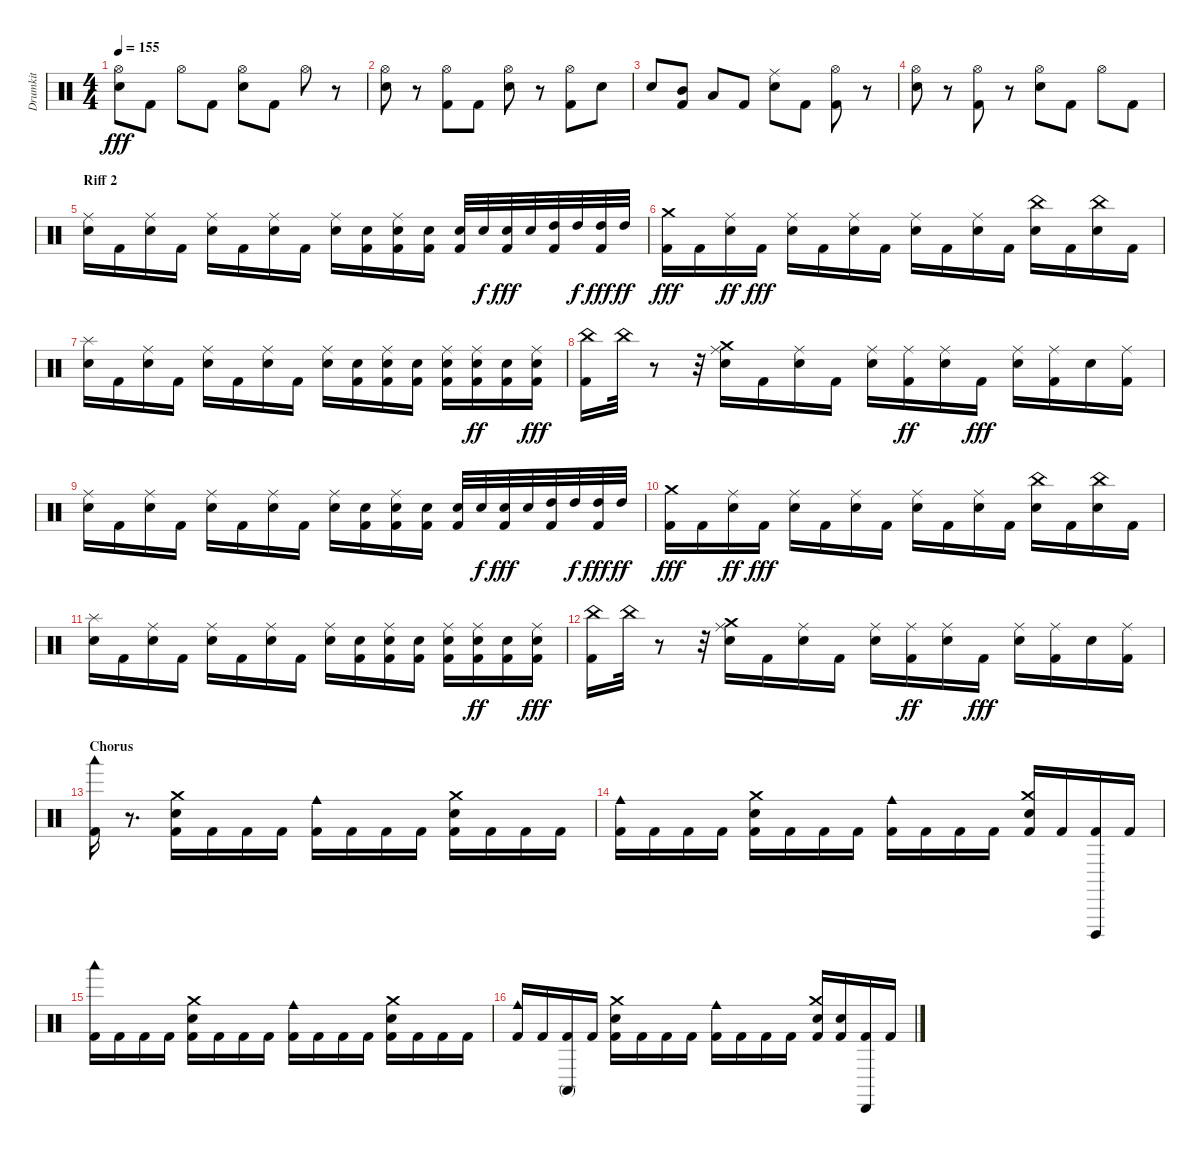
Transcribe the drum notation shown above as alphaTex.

\track ("Drumkit" "Drumkit") {instrument percussion}
\staff {score}
\articulation defaults
\ts (4 4)
\tempo 155
\clef neutral
\ks c
("Snare (hit) 2" "Hi-Hat (open)").8{dy fff} "Kick (hit) 2".8 "Hi-Hat (open)".8 "Kick (hit) 2".8 ("Snare (hit) 2" "Hi-Hat (open)").8 "Kick (hit) 2".8 "Hi-Hat (open)".8 r.8 |
("Snare (hit) 2" "Hi-Hat (open)").8 r.8 ("Kick (hit) 2" "Hi-Hat (open)").8 "Kick (hit) 2".8 ("Snare (hit) 2" "Hi-Hat (open)").8 r.8 ("Kick (hit) 2" "Hi-Hat (open)").8 "Snare (hit) 2".8 |
"Snare (hit) 2".8 ("Kick (hit) 2" "Mid Tom (hit)").8 "Low Tom (hit)".8 "Kick (hit) 2".8 ("Snare (hit) 2" "Ride (middle)").8 "Kick (hit) 2".8 ("Kick (hit) 2" "Hi-Hat (open)").8 r.8 |
("Snare (hit) 2" "Hi-Hat (open)").8 r.8 ("Kick (hit) 2" "Hi-Hat (open)").8 r.8 ("Snare (hit) 2" "Hi-Hat (open)").8 "Kick (hit) 2".8 "Hi-Hat (open)".8 "Kick (hit) 2".8 |
\section ("" "Riff 2")
("Snare (hit) 2" "Ride (middle)").16 "Kick (hit) 2".16 ("Snare (hit) 2" "Ride (middle)").16 "Kick (hit) 2".16 ("Snare (hit) 2" "Ride (middle)").16 "Kick (hit) 2".16 ("Snare (hit) 2" "Ride (middle)").16 "Kick (hit) 2".16 ("Snare (hit) 2" "Ride (middle)").16 ("Kick (hit) 2" "Snare (hit) 2").16 ("Kick (hit) 2" "Snare (hit) 2" "Ride (middle)").16 ("Kick (hit) 2" "Snare (hit) 2").16 ("Kick (hit) 2" "Snare (hit) 2").32 "Snare (hit) 2".32{dy f} ("Kick (hit) 2" "Snare (hit) 2").32{dy fff} "Snare (hit) 2".32 ("Kick (hit) 2" "High Tom (hit)").32 "High Tom (hit)".32{dy f} ("Kick (hit) 2" "High Tom (hit)").32{dy fff} "High Tom (hit)".32{dy ff} |
("Kick (hit) 2" "Crash medium (hit)").16{dy fff} "Kick (hit) 2".16 ("Snare (hit) 2" "Ride (middle)").16{dy ff} "Kick (hit) 2".16{dy fff} ("Snare (hit) 2" "Ride (middle)").16 "Kick (hit) 2".16 ("Snare (hit) 2" "Ride (middle)").16 "Kick (hit) 2".16 ("Snare (hit) 2" "Ride (middle)").16 "Kick (hit) 2".16 ("Snare (hit) 2" "Ride (middle)").16 "Kick (hit) 2".16 ("Snare (hit) 2" "China (hit)").16 "Kick (hit) 2".16 ("Snare (hit) 2" "China (hit)").16 "Kick (hit) 2".16 |
("Snare (hit) 2" "Splash (hit)").16 "Kick (hit) 2".16 ("Snare (hit) 2" "Ride (middle)").16 "Kick (hit) 2".16 ("Snare (hit) 2" "Ride (middle)").16 "Kick (hit) 2".16 ("Snare (hit) 2" "Ride (middle)").16 "Kick (hit) 2".16 ("Snare (hit) 2" "Ride (middle)").16 ("Kick (hit) 2" "Snare (hit) 2").16 ("Kick (hit) 2" "Snare (hit) 2" "Ride (middle)").16 ("Kick (hit) 2" "Snare (hit) 2").16 ("Kick (hit) 2" "Snare (hit) 2" "Ride (middle)").16 ("Kick (hit) 2" "Snare (hit) 2" "Ride (middle)").16{dy ff} ("Kick (hit) 2" "Snare (hit) 2").16 ("Kick (hit) 2" "Snare (hit) 2" "Ride (middle)").16{dy fff} |
("Kick (hit) 2" "China (hit)").16 "China (hit)".32 r.8 r.32 ("Snare (hit) 2" "Ride (middle)" "Crash medium (hit)").16 "Kick (hit) 2".16 ("Snare (hit) 2" "Ride (middle)").16 "Kick (hit) 2".16 ("Snare (hit) 2" "Ride (middle)").16 ("Kick (hit) 2" "Ride (middle)").16{dy ff} ("Snare (hit) 2" "Ride (middle)").16 "Kick (hit) 2".16{dy fff} ("Snare (hit) 2" "Ride (middle)").16 ("Kick (hit) 2" "Ride (middle)").16 "Snare (hit) 2".16 ("Kick (hit) 2" "Ride (middle)").16 |
("Snare (hit) 2" "Ride (middle)").16 "Kick (hit) 2".16 ("Snare (hit) 2" "Ride (middle)").16 "Kick (hit) 2".16 ("Snare (hit) 2" "Ride (middle)").16 "Kick (hit) 2".16 ("Snare (hit) 2" "Ride (middle)").16 "Kick (hit) 2".16 ("Snare (hit) 2" "Ride (middle)").16 ("Kick (hit) 2" "Snare (hit) 2").16 ("Kick (hit) 2" "Snare (hit) 2" "Ride (middle)").16 ("Kick (hit) 2" "Snare (hit) 2").16 ("Kick (hit) 2" "Snare (hit) 2").32 "Snare (hit) 2".32{dy f} ("Kick (hit) 2" "Snare (hit) 2").32{dy fff} "Snare (hit) 2".32 ("Kick (hit) 2" "High Tom (hit)").32 "High Tom (hit)".32{dy f} ("Kick (hit) 2" "High Tom (hit)").32{dy fff} "High Tom (hit)".32{dy ff} |
("Kick (hit) 2" "Crash medium (hit)").16{dy fff} "Kick (hit) 2".16 ("Snare (hit) 2" "Ride (middle)").16{dy ff} "Kick (hit) 2".16{dy fff} ("Snare (hit) 2" "Ride (middle)").16 "Kick (hit) 2".16 ("Snare (hit) 2" "Ride (middle)").16 "Kick (hit) 2".16 ("Snare (hit) 2" "Ride (middle)").16 "Kick (hit) 2".16 ("Snare (hit) 2" "Ride (middle)").16 "Kick (hit) 2".16 ("Snare (hit) 2" "China (hit)").16 "Kick (hit) 2".16 ("Snare (hit) 2" "China (hit)").16 "Kick (hit) 2".16 |
("Snare (hit) 2" "Splash (hit)").16 "Kick (hit) 2".16 ("Snare (hit) 2" "Ride (middle)").16 "Kick (hit) 2".16 ("Snare (hit) 2" "Ride (middle)").16 "Kick (hit) 2".16 ("Snare (hit) 2" "Ride (middle)").16 "Kick (hit) 2".16 ("Snare (hit) 2" "Ride (middle)").16 ("Kick (hit) 2" "Snare (hit) 2").16 ("Kick (hit) 2" "Snare (hit) 2" "Ride (middle)").16 ("Kick (hit) 2" "Snare (hit) 2").16 ("Kick (hit) 2" "Snare (hit) 2" "Ride (middle)").16 ("Kick (hit) 2" "Snare (hit) 2" "Ride (middle)").16{dy ff} ("Kick (hit) 2" "Snare (hit) 2").16 ("Kick (hit) 2" "Snare (hit) 2" "Ride (middle)").16{dy fff} |
("Kick (hit) 2" "China (hit)").16 "China (hit)".32 r.8 r.32 ("Snare (hit) 2" "Ride (middle)" "Crash medium (hit)").16 "Kick (hit) 2".16 ("Snare (hit) 2" "Ride (middle)").16 "Kick (hit) 2".16 ("Snare (hit) 2" "Ride (middle)").16 ("Kick (hit) 2" "Ride (middle)").16{dy ff} ("Snare (hit) 2" "Ride (middle)").16 "Kick (hit) 2".16{dy fff} ("Snare (hit) 2" "Ride (middle)").16 ("Kick (hit) 2" "Ride (middle)").16 "Snare (hit) 2".16 ("Kick (hit) 2" "Ride (middle)").16 |
\section ("" "Chorus")
("Kick (hit) 2" "Woodblock low (hit)").16 r.8{d} ("Kick (hit) 2" "Snare (hit) 2" "Crash medium (hit)").16 "Kick (hit) 2".16 "Kick (hit) 2".16 "Kick (hit) 2".16 ("Kick (hit) 2" "Cowbell medium (hit)").16 "Kick (hit) 2".16 "Kick (hit) 2".16 "Kick (hit) 2".16 ("Kick (hit) 2" "Snare (hit) 2" "Crash medium (hit)").16 "Kick (hit) 2".16 "Kick (hit) 2".16 "Kick (hit) 2".16 |
("Kick (hit) 2" "Cowbell medium (hit)").16 "Kick (hit) 2".16 "Kick (hit) 2".16 "Kick (hit) 2".16 ("Kick (hit) 2" "Snare (hit) 2" "Crash medium (hit)").16 "Kick (hit) 2".16 "Kick (hit) 2".16 "Kick (hit) 2".16 ("Kick (hit) 2" "Cowbell medium (hit)").16 "Kick (hit) 2".16 "Kick (hit) 2".16 "Kick (hit) 2".16 ("Kick (hit) 2" "Snare (hit) 2" "Crash medium (hit)").16 "Kick (hit) 2".16 ("Kick (hit) 2" "Cuica (open)").16 "Kick (hit) 2".16 |
("Kick (hit) 2" "Woodblock low (hit)").16 "Kick (hit) 2".16 "Kick (hit) 2".16 "Kick (hit) 2".16 ("Kick (hit) 2" "Snare (hit) 2" "Crash medium (hit)").16 "Kick (hit) 2".16 "Kick (hit) 2".16 "Kick (hit) 2".16 ("Kick (hit) 2" "Cowbell medium (hit)").16 "Kick (hit) 2".16 "Kick (hit) 2".16 "Kick (hit) 2".16 ("Kick (hit) 2" "Snare (hit) 2" "Crash medium (hit)").16 "Kick (hit) 2".16 "Kick (hit) 2".16 "Kick (hit) 2".16 |
("Kick (hit) 2" "Cowbell medium (hit)").16 "Kick (hit) 2".16 ("Kick (hit) 2" "Conga high (mute)").16 "Kick (hit) 2".16 ("Kick (hit) 2" "Snare (hit) 2" "Crash medium (hit)").16 "Kick (hit) 2".16 "Kick (hit) 2".16 "Kick (hit) 2".16 ("Kick (hit) 2" "Cowbell medium (hit)").16 "Kick (hit) 2".16 "Kick (hit) 2".16 "Kick (hit) 2".16 ("Kick (hit) 2" "Snare (hit) 2" "Crash medium (hit)").16 ("Kick (hit) 2" "Snare (hit) 2").16 ("Kick (hit) 2" "Cabasa (hit)").16 "Kick (hit) 2".16
